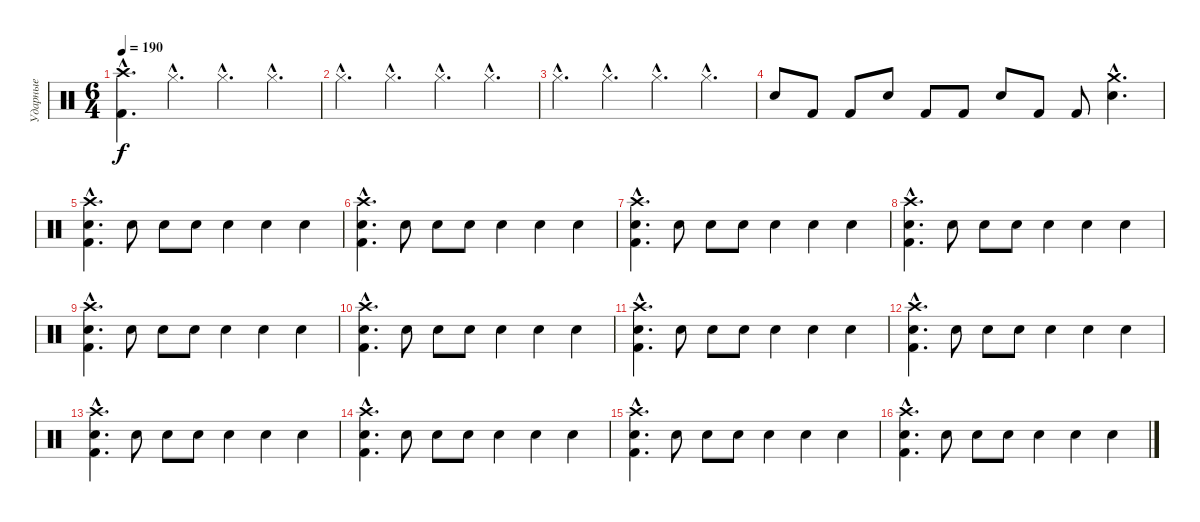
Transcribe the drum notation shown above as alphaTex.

\track ("Ударные" "Ударные") {instrument percussion}
\staff {score}
\articulation defaults
\ts (6 4)
\tempo 190
\clef neutral
\ks c
("Crash high (hit)"{hac} "Kick (hit) 2"{hac}).4{d dy f} "Hi-Hat (closed)"{hac}.4{d} "Hi-Hat (closed)"{hac}.4{d} "Hi-Hat (closed)"{hac}.4{d} |
"Hi-Hat (closed)"{hac}.4{d} "Hi-Hat (closed)"{hac}.4{d} "Hi-Hat (closed)"{hac}.4{d} "Hi-Hat (closed)"{hac}.4{d} |
"Hi-Hat (closed)"{hac}.4{d} "Hi-Hat (closed)"{hac}.4{d} "Hi-Hat (closed)"{hac}.4{d} "Hi-Hat (closed)"{hac}.4{d} |
"Electric Snare (hit)".8 "Kick (hit) 2".8 "Kick (hit) 2".8 "Electric Snare (hit)".8 "Kick (hit) 2".8 "Kick (hit) 2".8 "Electric Snare (hit)".8 "Kick (hit) 2".8 "Kick (hit) 2".8 ("Crash medium (hit)"{hac} "Electric Snare (hit)"{hac}).4{d} |
("Crash high (hit)"{hac} "Electric Snare (hit)"{hac} "Kick (hit) 2"{hac}).4{d} "Electric Snare (hit)".8 "Electric Snare (hit)".8 "Electric Snare (hit)".8 "Electric Snare (hit)".4 "Electric Snare (hit)".4 "Electric Snare (hit)".4 |
("Crash high (hit)"{hac} "Electric Snare (hit)"{hac} "Kick (hit) 2"{hac}).4{d} "Electric Snare (hit)".8 "Electric Snare (hit)".8 "Electric Snare (hit)".8 "Electric Snare (hit)".4 "Electric Snare (hit)".4 "Electric Snare (hit)".4 |
("Crash high (hit)"{hac} "Electric Snare (hit)"{hac} "Kick (hit) 2"{hac}).4{d} "Electric Snare (hit)".8 "Electric Snare (hit)".8 "Electric Snare (hit)".8 "Electric Snare (hit)".4 "Electric Snare (hit)".4 "Electric Snare (hit)".4 |
("Crash high (hit)"{hac} "Electric Snare (hit)"{hac} "Kick (hit) 2"{hac}).4{d} "Electric Snare (hit)".8 "Electric Snare (hit)".8 "Electric Snare (hit)".8 "Electric Snare (hit)".4 "Electric Snare (hit)".4 "Electric Snare (hit)".4 |
("Crash high (hit)"{hac} "Electric Snare (hit)"{hac} "Kick (hit) 2"{hac}).4{d} "Electric Snare (hit)".8 "Electric Snare (hit)".8 "Electric Snare (hit)".8 "Electric Snare (hit)".4 "Electric Snare (hit)".4 "Electric Snare (hit)".4 |
("Crash high (hit)"{hac} "Electric Snare (hit)"{hac} "Kick (hit) 2"{hac}).4{d} "Electric Snare (hit)".8 "Electric Snare (hit)".8 "Electric Snare (hit)".8 "Electric Snare (hit)".4 "Electric Snare (hit)".4 "Electric Snare (hit)".4 |
("Crash high (hit)"{hac} "Electric Snare (hit)"{hac} "Kick (hit) 2"{hac}).4{d} "Electric Snare (hit)".8 "Electric Snare (hit)".8 "Electric Snare (hit)".8 "Electric Snare (hit)".4 "Electric Snare (hit)".4 "Electric Snare (hit)".4 |
("Crash high (hit)"{hac} "Electric Snare (hit)"{hac} "Kick (hit) 2"{hac}).4{d} "Electric Snare (hit)".8 "Electric Snare (hit)".8 "Electric Snare (hit)".8 "Electric Snare (hit)".4 "Electric Snare (hit)".4 "Electric Snare (hit)".4 |
("Crash high (hit)"{hac} "Electric Snare (hit)"{hac} "Kick (hit) 2"{hac}).4{d} "Electric Snare (hit)".8 "Electric Snare (hit)".8 "Electric Snare (hit)".8 "Electric Snare (hit)".4 "Electric Snare (hit)".4 "Electric Snare (hit)".4 |
("Crash high (hit)"{hac} "Electric Snare (hit)"{hac} "Kick (hit) 2"{hac}).4{d} "Electric Snare (hit)".8 "Electric Snare (hit)".8 "Electric Snare (hit)".8 "Electric Snare (hit)".4 "Electric Snare (hit)".4 "Electric Snare (hit)".4 |
("Crash high (hit)"{hac} "Electric Snare (hit)"{hac} "Kick (hit) 2"{hac}).4{d} "Electric Snare (hit)".8 "Electric Snare (hit)".8 "Electric Snare (hit)".8 "Electric Snare (hit)".4 "Electric Snare (hit)".4 "Electric Snare (hit)".4 |
("Crash high (hit)"{hac} "Electric Snare (hit)"{hac} "Kick (hit) 2"{hac}).4{d} "Electric Snare (hit)".8 "Electric Snare (hit)".8 "Electric Snare (hit)".8 "Electric Snare (hit)".4 "Electric Snare (hit)".4 "Electric Snare (hit)".4
